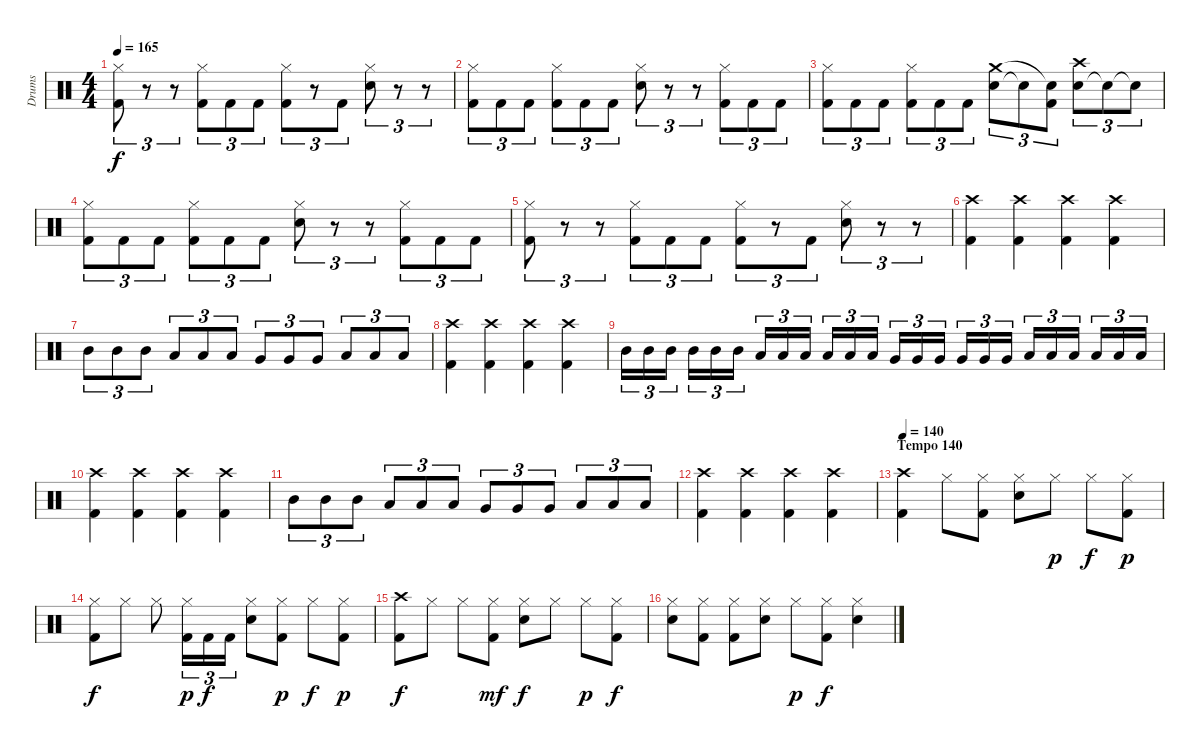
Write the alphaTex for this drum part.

\track ("Drums" "Drums") {instrument percussion}
\staff {score}
\articulation defaults
\ts (4 4)
\tempo 165
\clef neutral
\ks c
("Kick (hit) 2" "Hi-Hat (closed)").8{tu (3 2) dy f} r.8{tu (3 2)} r.8{tu (3 2)} ("Kick (hit) 2" "Hi-Hat (closed)").8{tu (3 2)} "Kick (hit) 2".8{tu (3 2)} "Kick (hit) 2".8{tu (3 2)} ("Kick (hit) 2" "Hi-Hat (closed)").8{tu (3 2)} r.8{tu (3 2)} "Kick (hit) 2".8{tu (3 2)} ("Snare (hit) 2" "Hi-Hat (closed)").8{tu (3 2)} r.8{tu (3 2)} r.8{tu (3 2)} |
("Kick (hit) 2" "Hi-Hat (closed)").8{tu (3 2)} "Kick (hit) 2".8{tu (3 2)} "Kick (hit) 2".8{tu (3 2)} ("Kick (hit) 2" "Hi-Hat (closed)").8{tu (3 2)} "Kick (hit) 2".8{tu (3 2)} "Kick (hit) 2".8{tu (3 2)} ("Snare (hit) 2" "Hi-Hat (closed)").8{tu (3 2)} r.8{tu (3 2)} r.8{tu (3 2)} ("Kick (hit) 2" "Hi-Hat (closed)").8{tu (3 2)} "Kick (hit) 2".8{tu (3 2)} "Kick (hit) 2".8{tu (3 2)} |
("Kick (hit) 2" "Hi-Hat (closed)").8{tu (3 2)} "Kick (hit) 2".8{tu (3 2)} "Kick (hit) 2".8{tu (3 2)} ("Kick (hit) 2" "Hi-Hat (closed)").8{tu (3 2)} "Kick (hit) 2".8{tu (3 2)} "Kick (hit) 2".8{tu (3 2)} ("Snare (hit) 2" "Crash medium (hit)").8{tu (3 2)} "Snare (hit)"{t}.8{tu (3 2)} ("Kick (hit) 2" "Snare (hit)"{t}).8{tu (3 2)} ("Snare (hit) 2" "Crash high (hit)").8{tu (3 2)} "Snare (hit)"{t}.8{tu (3 2)} "Snare (hit)"{t}.8{tu (3 2)} |
("Kick (hit) 2" "Hi-Hat (closed)").8{tu (3 2)} "Kick (hit) 2".8{tu (3 2)} "Kick (hit) 2".8{tu (3 2)} ("Kick (hit) 2" "Hi-Hat (closed)").8{tu (3 2)} "Kick (hit) 2".8{tu (3 2)} "Kick (hit) 2".8{tu (3 2)} ("Snare (hit) 2" "Hi-Hat (closed)").8{tu (3 2)} r.8{tu (3 2)} r.8{tu (3 2)} ("Kick (hit) 2" "Hi-Hat (closed)").8{tu (3 2)} "Kick (hit) 2".8{tu (3 2)} "Kick (hit) 2".8{tu (3 2)} |
("Kick (hit) 2" "Hi-Hat (closed)").8{tu (3 2)} r.8{tu (3 2)} r.8{tu (3 2)} ("Kick (hit) 2" "Hi-Hat (closed)").8{tu (3 2)} "Kick (hit) 2".8{tu (3 2)} "Kick (hit) 2".8{tu (3 2)} ("Kick (hit) 2" "Hi-Hat (closed)").8{tu (3 2)} r.8{tu (3 2)} "Kick (hit) 2".8{tu (3 2)} ("Snare (hit) 2" "Hi-Hat (closed)").8{tu (3 2)} r.8{tu (3 2)} r.8{tu (3 2)} |
("Kick (hit) 2" "Crash high (hit)").4 ("Kick (hit) 2" "Crash high (hit)").4 ("Kick (hit) 2" "Crash high (hit)").4 ("Kick (hit) 2" "Crash high (hit)").4 |
"Mid Tom (hit)".8{tu (3 2)} "Mid Tom (hit)".8{tu (3 2)} "Mid Tom (hit)".8{tu (3 2)} "Low Tom (hit)".8{tu (3 2)} "Low Tom (hit)".8{tu (3 2)} "Low Tom (hit)".8{tu (3 2)} "Very Low Tom (hit)".8{tu (3 2)} "Very Low Tom (hit)".8{tu (3 2)} "Very Low Tom (hit)".8{tu (3 2)} "Low Floor Tom (hit)".8{tu (3 2)} "Low Floor Tom (hit)".8{tu (3 2)} "Low Floor Tom (hit)".8{tu (3 2)} |
("Kick (hit) 2" "Crash high (hit)").4 ("Kick (hit) 2" "Crash high (hit)").4 ("Kick (hit) 2" "Crash high (hit)").4 ("Kick (hit) 2" "Crash high (hit)").4 |
"Mid Tom (hit)".16{tu (3 2)} "Mid Tom (hit)".16{tu (3 2)} "Mid Tom (hit)".16{tu (3 2)} "Mid Tom (hit)".16{tu (3 2)} "Mid Tom (hit)".16{tu (3 2)} "Mid Tom (hit)".16{tu (3 2)} "Low Tom (hit)".16{tu (3 2)} "Low Tom (hit)".16{tu (3 2)} "Low Tom (hit)".16{tu (3 2)} "Low Tom (hit)".16{tu (3 2)} "Low Tom (hit)".16{tu (3 2)} "Low Tom (hit)".16{tu (3 2)} "Very Low Tom (hit)".16{tu (3 2)} "Very Low Tom (hit)".16{tu (3 2)} "Very Low Tom (hit)".16{tu (3 2)} "Very Low Tom (hit)".16{tu (3 2)} "Very Low Tom (hit)".16{tu (3 2)} "Very Low Tom (hit)".16{tu (3 2)} "Low Floor Tom (hit)".16{tu (3 2)} "Low Floor Tom (hit)".16{tu (3 2)} "Low Floor Tom (hit)".16{tu (3 2)} "Low Floor Tom (hit)".16{tu (3 2)} "Low Floor Tom (hit)".16{tu (3 2)} "Low Floor Tom (hit)".16{tu (3 2)} |
("Kick (hit) 2" "Crash high (hit)").4 ("Kick (hit) 2" "Crash high (hit)").4 ("Kick (hit) 2" "Crash high (hit)").4 ("Kick (hit) 2" "Crash high (hit)").4 |
"Mid Tom (hit)".8{tu (3 2)} "Mid Tom (hit)".8{tu (3 2)} "Mid Tom (hit)".8{tu (3 2)} "Low Tom (hit)".8{tu (3 2)} "Low Tom (hit)".8{tu (3 2)} "Low Tom (hit)".8{tu (3 2)} "Very Low Tom (hit)".8{tu (3 2)} "Very Low Tom (hit)".8{tu (3 2)} "Very Low Tom (hit)".8{tu (3 2)} "Low Floor Tom (hit)".8{tu (3 2)} "Low Floor Tom (hit)".8{tu (3 2)} "Low Floor Tom (hit)".8{tu (3 2)} |
("Kick (hit) 2" "Crash high (hit)").4 ("Kick (hit) 2" "Crash high (hit)").4 ("Kick (hit) 2" "Crash high (hit)").4 ("Kick (hit) 2" "Crash high (hit)").4 |
\section ("" "Tempo 140")
\tempo 140
("Kick (hit) 2" "Crash high (hit)").4 "Hi-Hat (closed)".8 ("Kick (hit) 2" "Hi-Hat (closed)").8 ("Snare (hit) 2" "Hi-Hat (closed)").8 "Hi-Hat (closed)".8{dy p} "Hi-Hat (closed)".8{dy f} ("Kick (hit) 2" "Hi-Hat (closed)").8{dy p} |
("Kick (hit) 2" "Hi-Hat (closed)").8{dy f} "Hi-Hat (closed)".8 "Hi-Hat (closed)".8 ("Kick (hit) 2" "Hi-Hat (closed)").16{tu (3 2) dy p} "Kick (hit) 2".16{tu (3 2) dy f} "Kick (hit) 2".16{tu (3 2)} ("Snare (hit) 2" "Hi-Hat (closed)").8 ("Kick (hit) 2" "Hi-Hat (closed)").8{dy p} "Hi-Hat (closed)".8{dy f} ("Kick (hit) 2" "Hi-Hat (closed)").8{dy p} |
("Kick (hit) 2" "Crash high (hit)").8{dy f} "Hi-Hat (closed)".8 "Hi-Hat (closed)".8 ("Kick (hit) 2" "Hi-Hat (closed)").8{dy mf} ("Snare (hit) 2" "Hi-Hat (closed)").8{dy f} "Hi-Hat (closed)".8 "Hi-Hat (closed)".8{dy p} ("Kick (hit) 2" "Hi-Hat (closed)").8{dy f} |
("Snare (hit) 2" "Hi-Hat (closed)").8 ("Kick (hit) 2" "Hi-Hat (closed)").8 ("Kick (hit) 2" "Hi-Hat (closed)").8 ("Snare (hit) 2" "Hi-Hat (closed)").8 "Hi-Hat (closed)".8{dy p} ("Kick (hit) 2" "Hi-Hat (closed)").8{dy f} ("Snare (hit) 2" "Hi-Hat (closed)").4
